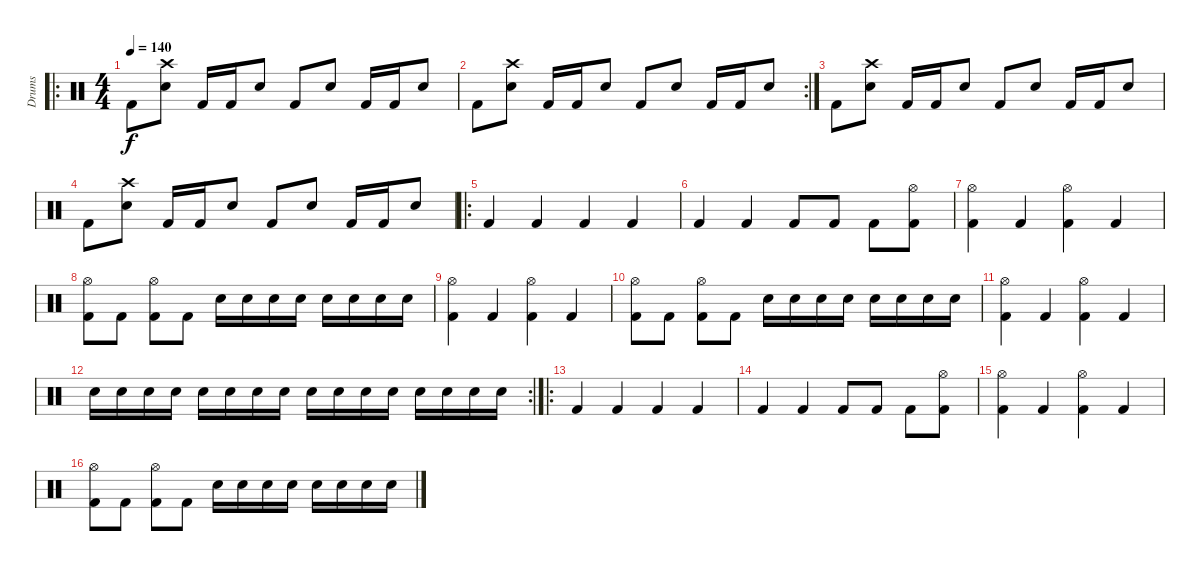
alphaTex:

\track ("Drums" "Drums") {instrument percussion}
\staff {score}
\articulation defaults
\ro
\ts (4 4)
\tempo 140
\clef neutral
\ks c "Kick (hit) 2".8{dy f}
("Snare (hit) 2" "Crash high (hit)").8 "Kick (hit) 2".16 "Kick (hit) 2".16 "Snare (hit) 2".8 "Kick (hit) 2".8 "Snare (hit) 2".8 "Kick (hit) 2".16 "Kick (hit) 2".16 "Snare (hit) 2".8 |
\rc 2 "Kick (hit) 2".8
("Snare (hit) 2" "Crash high (hit)").8 "Kick (hit) 2".16 "Kick (hit) 2".16 "Snare (hit) 2".8 "Kick (hit) 2".8 "Snare (hit) 2".8 "Kick (hit) 2".16 "Kick (hit) 2".16 "Snare (hit) 2".8 |
"Kick (hit) 2".8 ("Snare (hit) 2" "Crash high (hit)").8 "Kick (hit) 2".16 "Kick (hit) 2".16 "Snare (hit) 2".8 "Kick (hit) 2".8 "Snare (hit) 2".8 "Kick (hit) 2".16 "Kick (hit) 2".16 "Snare (hit) 2".8 |
"Kick (hit) 2".8 ("Snare (hit) 2" "Crash high (hit)").8 "Kick (hit) 2".16 "Kick (hit) 2".16 "Snare (hit) 2".8 "Kick (hit) 2".8 "Snare (hit) 2".8 "Kick (hit) 2".16 "Kick (hit) 2".16 "Snare (hit) 2".8 |
\ro "Kick (hit) 2".4 "Kick (hit) 2".4 "Kick (hit) 2".4 "Kick (hit) 2".4
|
"Kick (hit) 2".4 "Kick (hit) 2".4 "Kick (hit) 2".8 "Kick (hit) 2".8 "Kick (hit) 2".8 ("Kick (hit) 2" "Hi-Hat (open)").8 |
("Kick (hit) 2" "Hi-Hat (open)").4 "Kick (hit) 2".4 ("Kick (hit) 2" "Hi-Hat (open)").4 "Kick (hit) 2".4 |
("Kick (hit) 2" "Hi-Hat (open)").8 "Kick (hit) 2".8 ("Kick (hit) 2" "Hi-Hat (open)").8 "Kick (hit) 2".8 "Snare (hit) 2".16 "Snare (hit) 2".16 "Snare (hit) 2".16 "Snare (hit) 2".16 "Snare (hit) 2".16 "Snare (hit) 2".16 "Snare (hit) 2".16 "Snare (hit) 2".16 |
("Kick (hit) 2" "Hi-Hat (open)").4 "Kick (hit) 2".4 ("Kick (hit) 2" "Hi-Hat (open)").4 "Kick (hit) 2".4 |
("Kick (hit) 2" "Hi-Hat (open)").8 "Kick (hit) 2".8 ("Kick (hit) 2" "Hi-Hat (open)").8 "Kick (hit) 2".8 "Snare (hit) 2".16 "Snare (hit) 2".16 "Snare (hit) 2".16 "Snare (hit) 2".16 "Snare (hit) 2".16 "Snare (hit) 2".16 "Snare (hit) 2".16 "Snare (hit) 2".16 |
("Kick (hit) 2" "Hi-Hat (open)").4 "Kick (hit) 2".4 ("Kick (hit) 2" "Hi-Hat (open)").4 "Kick (hit) 2".4 |
\rc 2 "Snare (hit) 2".16 "Snare (hit) 2".16 "Snare (hit) 2".16 "Snare (hit) 2".16 "Snare (hit) 2".16 "Snare (hit) 2".16 "Snare (hit) 2".16 "Snare (hit) 2".16 "Snare (hit) 2".16 "Snare (hit) 2".16 "Snare (hit) 2".16 "Snare (hit) 2".16 "Snare (hit) 2".16 "Snare (hit) 2".16 "Snare (hit) 2".16 "Snare (hit) 2".16
|
\ro "Kick (hit) 2".4 "Kick (hit) 2".4 "Kick (hit) 2".4 "Kick (hit) 2".4
|
"Kick (hit) 2".4 "Kick (hit) 2".4 "Kick (hit) 2".8 "Kick (hit) 2".8 "Kick (hit) 2".8 ("Kick (hit) 2" "Hi-Hat (open)").8 |
("Kick (hit) 2" "Hi-Hat (open)").4 "Kick (hit) 2".4 ("Kick (hit) 2" "Hi-Hat (open)").4 "Kick (hit) 2".4 |
("Kick (hit) 2" "Hi-Hat (open)").8 "Kick (hit) 2".8 ("Kick (hit) 2" "Hi-Hat (open)").8 "Kick (hit) 2".8 "Snare (hit) 2".16 "Snare (hit) 2".16 "Snare (hit) 2".16 "Snare (hit) 2".16 "Snare (hit) 2".16 "Snare (hit) 2".16 "Snare (hit) 2".16 "Snare (hit) 2".16
